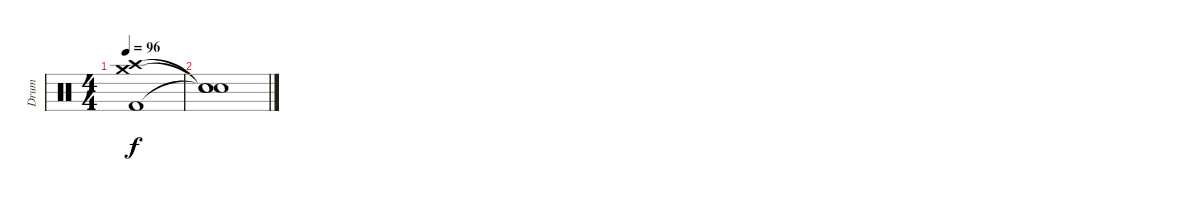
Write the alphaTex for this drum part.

\track ("Drum" "Drum") {instrument percussion}
\staff {score}
\articulation defaults
\ts (4 4)
\tempo 96
\clef neutral
\ks c
("Crash high (hit)" "Kick (hit) 2" "Crash medium (hit)").1{dy f} |
("Snare (hit)"{t} "Snare (hit)"{t} "Snare (hit)"{t}).1
